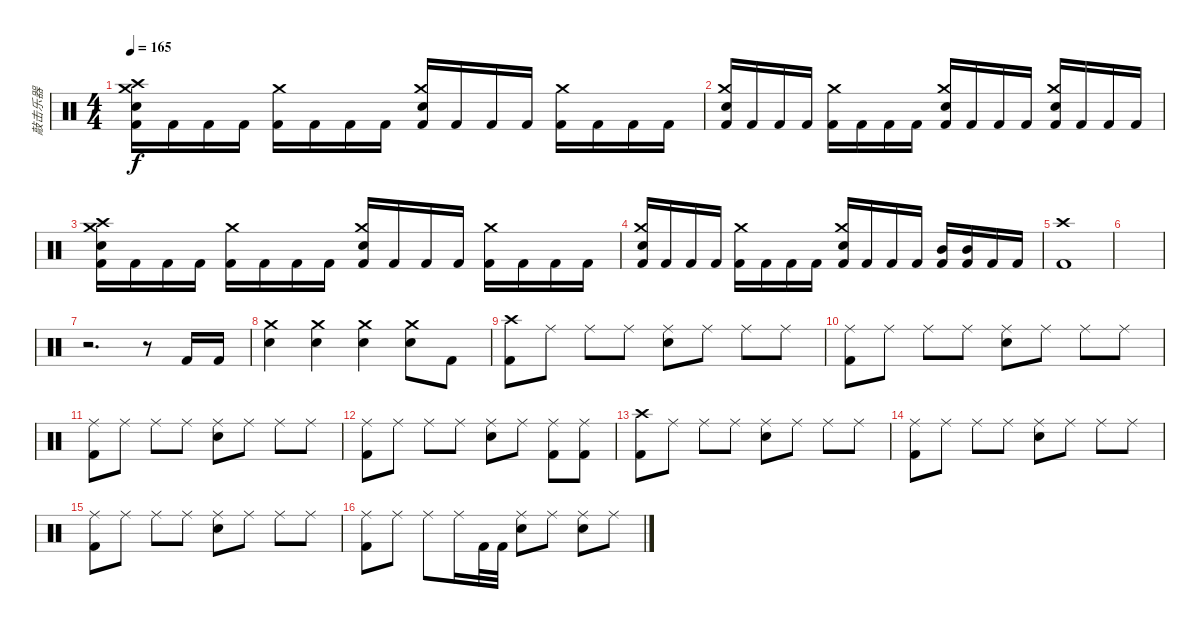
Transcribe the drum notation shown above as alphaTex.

\track ("敲击乐器" "敲击乐器") {instrument percussion}
\staff {score}
\articulation defaults
\ts (4 4)
\tempo 165
\clef neutral
\ks c
("Snare (hit) 2" "Crash medium (hit)" "Kick (hit) 2" "Crash high (hit)").16{dy f} "Kick (hit) 2".16 "Kick (hit) 2".16 "Kick (hit) 2".16 ("Crash medium (hit)" "Kick (hit) 2").16 "Kick (hit) 2".16 "Kick (hit) 2".16 "Kick (hit) 2".16 ("Snare (hit) 2" "Crash medium (hit)" "Kick (hit) 2").16 "Kick (hit) 2".16 "Kick (hit) 2".16 "Kick (hit) 2".16 ("Crash medium (hit)" "Kick (hit) 2").16 "Kick (hit) 2".16 "Kick (hit) 2".16 "Kick (hit) 2".16 |
("Snare (hit) 2" "Crash medium (hit)" "Kick (hit) 2").16 "Kick (hit) 2".16 "Kick (hit) 2".16 "Kick (hit) 2".16 ("Crash medium (hit)" "Kick (hit) 2").16 "Kick (hit) 2".16 "Kick (hit) 2".16 "Kick (hit) 2".16 ("Snare (hit) 2" "Crash medium (hit)" "Kick (hit) 2").16 "Kick (hit) 2".16 "Kick (hit) 2".16 "Kick (hit) 2".16 ("Snare (hit) 2" "Crash medium (hit)" "Kick (hit) 2").16 "Kick (hit) 2".16 "Kick (hit) 2".16 "Kick (hit) 2".16 |
("Snare (hit) 2" "Crash medium (hit)" "Kick (hit) 2" "Crash high (hit)").16 "Kick (hit) 2".16 "Kick (hit) 2".16 "Kick (hit) 2".16 ("Crash medium (hit)" "Kick (hit) 2").16 "Kick (hit) 2".16 "Kick (hit) 2".16 "Kick (hit) 2".16 ("Snare (hit) 2" "Crash medium (hit)" "Kick (hit) 2").16 "Kick (hit) 2".16 "Kick (hit) 2".16 "Kick (hit) 2".16 ("Crash medium (hit)" "Kick (hit) 2").16 "Kick (hit) 2".16 "Kick (hit) 2".16 "Kick (hit) 2".16 |
("Snare (hit) 2" "Crash medium (hit)" "Kick (hit) 2").16 "Kick (hit) 2".16 "Kick (hit) 2".16 "Kick (hit) 2".16 ("Crash medium (hit)" "Kick (hit) 2").16 "Kick (hit) 2".16 "Kick (hit) 2".16 "Kick (hit) 2".16 ("Snare (hit) 2" "Crash medium (hit)" "Kick (hit) 2").16 "Kick (hit) 2".16 "Kick (hit) 2".16 "Kick (hit) 2".16 ("Mid Tom (hit)" "Kick (hit) 2").16 ("Mid Tom (hit)" "Kick (hit) 2").16 "Kick (hit) 2".16 "Kick (hit) 2".16 |
("Kick (hit) 2" "Crash high (hit)").1 |
|
r.2{d} r.8 "Kick (hit) 2".16 "Kick (hit) 2".16 |
("Crash medium (hit)" "Snare (hit) 2").4 ("Crash medium (hit)" "Snare (hit) 2").4 ("Crash medium (hit)" "Snare (hit) 2").4 ("Crash medium (hit)" "Snare (hit) 2").8 "Kick (hit) 2".8 |
("Crash high (hit)" "Kick (hit) 2").8 "Ride (middle)".8 "Ride (middle)".8 "Ride (middle)".8 ("Ride (middle)" "Snare (hit) 2").8 "Ride (middle)".8 "Ride (middle)".8 "Ride (middle)".8 |
("Ride (middle)" "Kick (hit) 2").8 "Ride (middle)".8 "Ride (middle)".8 "Ride (middle)".8 ("Ride (middle)" "Snare (hit) 2").8 "Ride (middle)".8 "Ride (middle)".8 "Ride (middle)".8 |
("Ride (middle)" "Kick (hit) 2").8 "Ride (middle)".8 "Ride (middle)".8 "Ride (middle)".8 ("Ride (middle)" "Snare (hit) 2").8 "Ride (middle)".8 "Ride (middle)".8 "Ride (middle)".8 |
("Ride (middle)" "Kick (hit) 2").8 "Ride (middle)".8 "Ride (middle)".8 "Ride (middle)".8 ("Ride (middle)" "Snare (hit) 2").8 "Ride (middle)".8 ("Ride (middle)" "Kick (hit) 2").8 ("Ride (middle)" "Kick (hit) 2").8 |
("Crash high (hit)" "Kick (hit) 2").8 "Ride (middle)".8 "Ride (middle)".8 "Ride (middle)".8 ("Ride (middle)" "Snare (hit) 2").8 "Ride (middle)".8 "Ride (middle)".8 "Ride (middle)".8 |
("Ride (middle)" "Kick (hit) 2").8 "Ride (middle)".8 "Ride (middle)".8 "Ride (middle)".8 ("Ride (middle)" "Snare (hit) 2").8 "Ride (middle)".8 "Ride (middle)".8 "Ride (middle)".8 |
("Ride (middle)" "Kick (hit) 2").8 "Ride (middle)".8 "Ride (middle)".8 "Ride (middle)".8 ("Ride (middle)" "Snare (hit) 2").8 "Ride (middle)".8 "Ride (middle)".8 "Ride (middle)".8 |
("Ride (middle)" "Kick (hit) 2").8 "Ride (middle)".8 "Ride (middle)".8 "Ride (middle)".16 "Kick (hit) 2".32 "Kick (hit) 2".32 ("Ride (middle)" "Snare (hit) 2").8 "Ride (middle)".8 ("Ride (middle)" "Snare (hit) 2").8 "Ride (middle)".8
